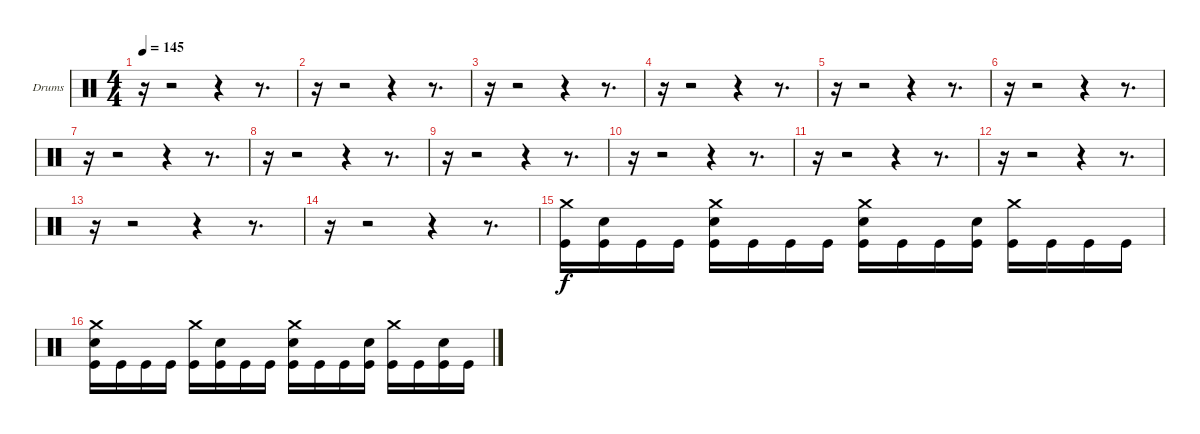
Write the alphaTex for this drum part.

\bracketExtendMode groupsimilarinstruments
\firstSystemTrackNameOrientation horizontal
\otherSystemsTrackNameOrientation horizontal
\track ("Drumkit" "Drums") {instrument percussion}
\staff {score}
\articulation defaults
\ts (4 4)
\tempo 145
\clef neutral
\ks c
r.16{dy f} r.2 r.4 r.8{d} |
r.16 r.2 r.4 r.8{d} |
r.16 r.2 r.4 r.8{d} |
r.16 r.2 r.4 r.8{d} |
r.16 r.2 r.4 r.8{d} |
r.16 r.2 r.4 r.8{d} |
r.16 r.2 r.4 r.8{d} |
r.16 r.2 r.4 r.8{d} |
r.16 r.2 r.4 r.8{d} |
r.16 r.2 r.4 r.8{d} |
r.16 r.2 r.4 r.8{d} |
r.16 r.2 r.4 r.8{d} |
r.16 r.2 r.4 r.8{d} |
r.16 r.2 r.4 r.8{d} |
("Crash medium (hit)" "Kick (hit)").16 ("Snare (hit) 2" "Kick (hit)").16 "Kick (hit)".16 "Kick (hit)".16 ("Crash medium (hit)" "Snare (hit) 2" "Kick (hit)").16 "Kick (hit)".16 "Kick (hit)".16 "Kick (hit)".16 ("Crash medium (hit)" "Snare (hit) 2" "Kick (hit)").16 "Kick (hit)".16 "Kick (hit)".16 ("Snare (hit) 2" "Kick (hit)").16 ("Crash medium (hit)" "Kick (hit)").16 "Kick (hit)".16 "Kick (hit)".16 "Kick (hit)".16 |
("Crash medium (hit)" "Snare (hit) 2" "Kick (hit)").16 "Kick (hit)".16 "Kick (hit)".16 "Kick (hit)".16 ("Crash medium (hit)" "Kick (hit)").16 ("Snare (hit) 2" "Kick (hit)").16 "Kick (hit)".16 "Kick (hit)".16 ("Crash medium (hit)" "Snare (hit) 2" "Kick (hit)").16 "Kick (hit)".16 "Kick (hit)".16 ("Snare (hit) 2" "Kick (hit)").16 ("Crash medium (hit)" "Kick (hit)").16 "Kick (hit)".16 ("Snare (hit) 2" "Kick (hit)").16 "Kick (hit)".16
